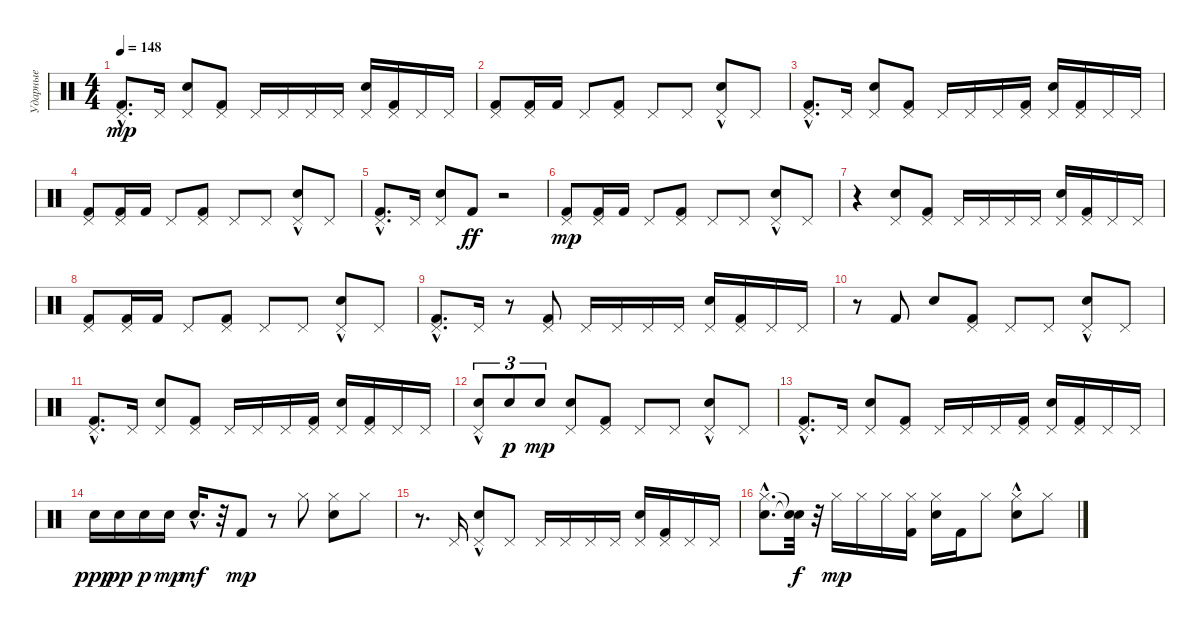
\track ("Ударные" "Ударные") {instrument percussion}
\staff {score}
\articulation defaults
\ts (4 4)
\tempo 148
\clef neutral
\ks c
("Kick (hit) 2"{hac} "Pedal Hi-Hat (hit)"{hac}).8{d dy mp} "Pedal Hi-Hat (hit)".16 ("Electric Snare (hit)" "Pedal Hi-Hat (hit)").8 ("Kick (hit) 2" "Pedal Hi-Hat (hit)").8 "Pedal Hi-Hat (hit)".16 "Pedal Hi-Hat (hit)".16 "Pedal Hi-Hat (hit)".16 "Pedal Hi-Hat (hit)".16 ("Electric Snare (hit)" "Pedal Hi-Hat (hit)").16 ("Kick (hit) 2" "Pedal Hi-Hat (hit)").16 "Pedal Hi-Hat (hit)".16 "Pedal Hi-Hat (hit)".16 |
("Kick (hit) 2" "Pedal Hi-Hat (hit)").8 ("Kick (hit) 2" "Pedal Hi-Hat (hit)").16 "Kick (hit) 2".16 "Pedal Hi-Hat (hit)".8 ("Kick (hit) 2" "Pedal Hi-Hat (hit)").8 "Pedal Hi-Hat (hit)".8 "Pedal Hi-Hat (hit)".8 ("Electric Snare (hit)"{hac} "Pedal Hi-Hat (hit)").8 "Pedal Hi-Hat (hit)".8 |
("Kick (hit) 2"{hac} "Pedal Hi-Hat (hit)"{hac}).8{d} "Pedal Hi-Hat (hit)".16 ("Electric Snare (hit)" "Pedal Hi-Hat (hit)").8 ("Kick (hit) 2" "Pedal Hi-Hat (hit)").8 "Pedal Hi-Hat (hit)".16 "Pedal Hi-Hat (hit)".16 "Pedal Hi-Hat (hit)".16 ("Kick (hit) 2" "Pedal Hi-Hat (hit)").16 ("Electric Snare (hit)" "Pedal Hi-Hat (hit)").16 ("Kick (hit) 2" "Pedal Hi-Hat (hit)").16 "Pedal Hi-Hat (hit)".16 "Pedal Hi-Hat (hit)".16 |
("Kick (hit) 2" "Pedal Hi-Hat (hit)").8 ("Kick (hit) 2" "Pedal Hi-Hat (hit)").16 "Kick (hit) 2".16 "Pedal Hi-Hat (hit)".8 ("Kick (hit) 2" "Pedal Hi-Hat (hit)").8 "Pedal Hi-Hat (hit)".8 "Pedal Hi-Hat (hit)".8 ("Electric Snare (hit)"{hac} "Pedal Hi-Hat (hit)").8 "Pedal Hi-Hat (hit)".8 |
("Kick (hit) 2"{hac} "Pedal Hi-Hat (hit)"{hac}).8{d} "Pedal Hi-Hat (hit)".16 ("Electric Snare (hit)" "Pedal Hi-Hat (hit)").8 "Kick (hit) 2".8{dy ff} r.2 |
("Kick (hit) 2" "Pedal Hi-Hat (hit)").8{dy mp} ("Kick (hit) 2" "Pedal Hi-Hat (hit)").16 "Kick (hit) 2".16 "Pedal Hi-Hat (hit)".8 ("Kick (hit) 2" "Pedal Hi-Hat (hit)").8 "Pedal Hi-Hat (hit)".8 "Pedal Hi-Hat (hit)".8 ("Electric Snare (hit)"{hac} "Pedal Hi-Hat (hit)").8 "Pedal Hi-Hat (hit)".8 |
r.4 ("Electric Snare (hit)" "Pedal Hi-Hat (hit)").8 ("Kick (hit) 2" "Pedal Hi-Hat (hit)").8 "Pedal Hi-Hat (hit)".16 "Pedal Hi-Hat (hit)".16 "Pedal Hi-Hat (hit)".16 "Pedal Hi-Hat (hit)".16 ("Electric Snare (hit)" "Pedal Hi-Hat (hit)").16 ("Kick (hit) 2" "Pedal Hi-Hat (hit)").16 "Pedal Hi-Hat (hit)".16 "Pedal Hi-Hat (hit)".16 |
("Kick (hit) 2" "Pedal Hi-Hat (hit)").8 ("Kick (hit) 2" "Pedal Hi-Hat (hit)").16 "Kick (hit) 2".16 "Pedal Hi-Hat (hit)".8 ("Kick (hit) 2" "Pedal Hi-Hat (hit)").8 "Pedal Hi-Hat (hit)".8 "Pedal Hi-Hat (hit)".8 ("Electric Snare (hit)"{hac} "Pedal Hi-Hat (hit)").8 "Pedal Hi-Hat (hit)".8 |
("Kick (hit) 2"{hac} "Pedal Hi-Hat (hit)"{hac}).8{d} "Pedal Hi-Hat (hit)".16 r.8 ("Kick (hit) 2" "Pedal Hi-Hat (hit)").8 "Pedal Hi-Hat (hit)".16 "Pedal Hi-Hat (hit)".16 "Pedal Hi-Hat (hit)".16 "Pedal Hi-Hat (hit)".16 ("Electric Snare (hit)" "Pedal Hi-Hat (hit)").16 ("Kick (hit) 2" "Pedal Hi-Hat (hit)").16 "Pedal Hi-Hat (hit)".16 "Pedal Hi-Hat (hit)".16 |
r.8 "Kick (hit) 2".8 "Electric Snare (hit)".8 ("Kick (hit) 2" "Pedal Hi-Hat (hit)").8 "Pedal Hi-Hat (hit)".8 "Pedal Hi-Hat (hit)".8 ("Electric Snare (hit)"{hac} "Pedal Hi-Hat (hit)").8 "Pedal Hi-Hat (hit)".8 |
("Kick (hit) 2"{hac} "Pedal Hi-Hat (hit)"{hac}).8{d} "Pedal Hi-Hat (hit)".16 ("Electric Snare (hit)" "Pedal Hi-Hat (hit)").8 ("Kick (hit) 2" "Pedal Hi-Hat (hit)").8 "Pedal Hi-Hat (hit)".16 "Pedal Hi-Hat (hit)".16 "Pedal Hi-Hat (hit)".16 ("Kick (hit) 2" "Pedal Hi-Hat (hit)").16 ("Electric Snare (hit)" "Pedal Hi-Hat (hit)").16 ("Kick (hit) 2" "Pedal Hi-Hat (hit)").16 "Pedal Hi-Hat (hit)".16 "Pedal Hi-Hat (hit)".16 |
("Electric Snare (hit)" "Pedal Hi-Hat (hit)"{hac}).8{tu (3 2)} "Electric Snare (hit)".8{tu (3 2) dy p} "Electric Snare (hit)".8{tu (3 2) dy mp} ("Electric Snare (hit)" "Pedal Hi-Hat (hit)").8 ("Kick (hit) 2" "Pedal Hi-Hat (hit)").8 "Pedal Hi-Hat (hit)".8 "Pedal Hi-Hat (hit)".8 ("Electric Snare (hit)"{hac} "Pedal Hi-Hat (hit)").8 "Pedal Hi-Hat (hit)".8 |
("Kick (hit) 2" "Pedal Hi-Hat (hit)"{hac}).8{d} "Pedal Hi-Hat (hit)".16 ("Electric Snare (hit)" "Pedal Hi-Hat (hit)").8 ("Kick (hit) 2" "Pedal Hi-Hat (hit)").8 "Pedal Hi-Hat (hit)".16 "Pedal Hi-Hat (hit)".16 "Pedal Hi-Hat (hit)".16 ("Kick (hit) 2" "Pedal Hi-Hat (hit)").16 ("Electric Snare (hit)" "Pedal Hi-Hat (hit)").16 ("Kick (hit) 2" "Pedal Hi-Hat (hit)").16 "Pedal Hi-Hat (hit)".16 "Pedal Hi-Hat (hit)".16 |
"Electric Snare (hit)".16{dy ppp} "Electric Snare (hit)".16{dy pp} "Electric Snare (hit)".16{dy p} "Electric Snare (hit)".16{dy mp} "Electric Snare (hit)"{hac}.16{d dy mf} r.32 "Kick (hit) 2".8{dy mp} r.8 "Hi-Hat (closed)".8 ("Electric Snare (hit)" "Hi-Hat (closed)").8 "Hi-Hat (closed)".8 |
r.8{d} "Pedal Hi-Hat (hit)".16 ("Electric Snare (hit)"{hac} "Pedal Hi-Hat (hit)").8 "Pedal Hi-Hat (hit)".8 "Pedal Hi-Hat (hit)".16 "Pedal Hi-Hat (hit)".16 "Pedal Hi-Hat (hit)".16 "Pedal Hi-Hat (hit)".16 ("Electric Snare (hit)" "Pedal Hi-Hat (hit)").16 ("Kick (hit) 2" "Pedal Hi-Hat (hit)").16 "Pedal Hi-Hat (hit)".16 "Pedal Hi-Hat (hit)".16 |
("Electric Snare (hit)"{hac} "Hi-Hat (closed)"{hac}).8{d} ("Snare (hit)"{t} "Snare (hit)"{t}).32{dy f} r.32 "Hi-Hat (closed)".16{dy mp} "Hi-Hat (closed)".16 "Hi-Hat (closed)".16 ("Kick (hit) 2" "Hi-Hat (closed)").16 ("Electric Snare (hit)" "Hi-Hat (closed)").16 "Kick (hit) 2".16 "Hi-Hat (closed)".8 ("Electric Snare (hit)"{hac} "Hi-Hat (closed)").8 "Hi-Hat (closed)".8
